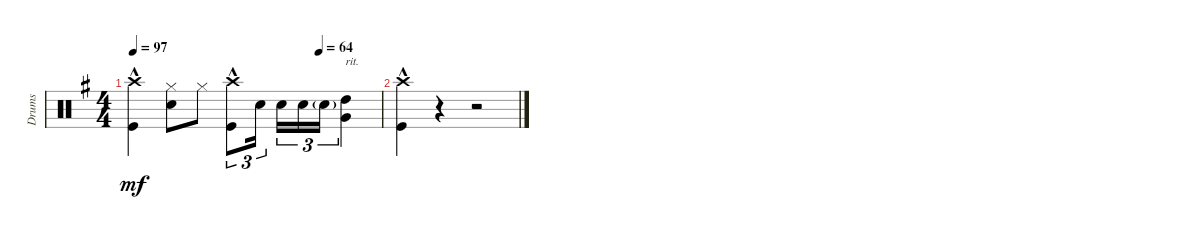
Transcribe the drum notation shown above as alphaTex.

\track ("Drums" "Drums") {instrument percussion}
\staff {score}
\articulation defaults
\ts (4 4)
\tempo 97
\tempo (64 0.75)
\clef neutral
\ks eminor
("Crash high (hit)" "Kick (hit)"{hac}).4{dy mf} ("Hi-Hat (closed)" "Snare (hit) 2").8 "Hi-Hat (closed)".8 ("Crash high (hit)" "Kick (hit)"{hac}).8{tu (3 2)} "Snare (hit) 2".16{tu (3 2) beam splitsecondary} "Snare (hit) 2".16{tu (3 2)} "Snare (hit) 2".16{tu (3 2)} "Snare (hit) 2"{g}.16{tu (3 2)} ("High Tom (hit)" "Very Low Tom (hit)").4{txt "rit."} |
("Crash high (hit)" "Kick (hit)"{hac}).4 r.4 r.2
